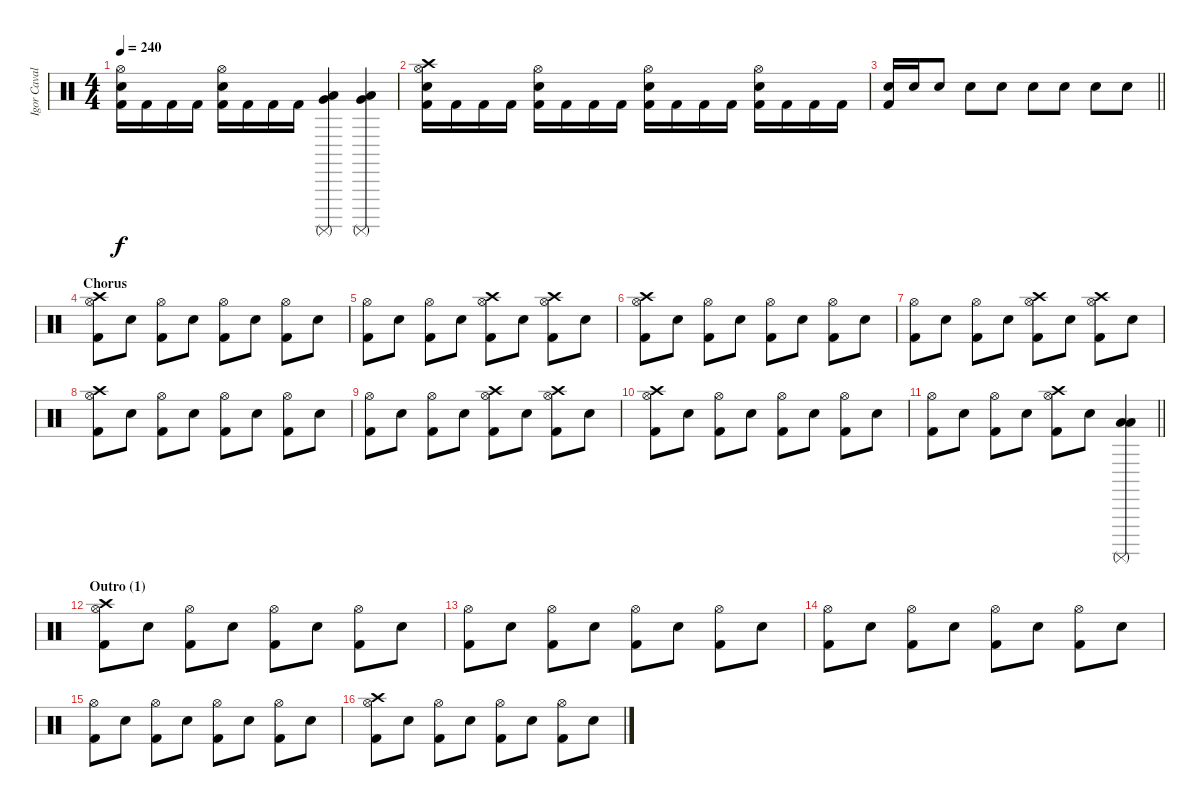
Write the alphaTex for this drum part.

\track ("Igor Cavalera" "Igor Caval") {instrument percussion}
\staff {score}
\articulation defaults
\ts (4 4)
\tempo 240
\clef neutral
\ks c
("Hi-Hat (open)" "Electric Snare (hit)" "Kick (hit) 2").16{dy f} "Kick (hit) 2".16 "Kick (hit) 2".16 "Kick (hit) 2".16 ("Hi-Hat (open)" "Electric Snare (hit)" "Kick (hit) 2").16 "Kick (hit) 2".16 "Kick (hit) 2".16 "Kick (hit) 2".16 ("Surdo (mute)" "Low Floor Tom (hit)" "Very Low Tom (hit)").4 ("Surdo (mute)" "Low Floor Tom (hit)" "Very Low Tom (hit)").4 |
("Crash high (hit)" "Hi-Hat (open)" "Electric Snare (hit)" "Kick (hit) 2").16 "Kick (hit) 2".16 "Kick (hit) 2".16 "Kick (hit) 2".16 ("Hi-Hat (open)" "Electric Snare (hit)" "Kick (hit) 2").16 "Kick (hit) 2".16 "Kick (hit) 2".16 "Kick (hit) 2".16 ("Hi-Hat (open)" "Electric Snare (hit)" "Kick (hit) 2").16 "Kick (hit) 2".16 "Kick (hit) 2".16 "Kick (hit) 2".16 ("Hi-Hat (open)" "Electric Snare (hit)" "Kick (hit) 2").16 "Kick (hit) 2".16 "Kick (hit) 2".16 "Kick (hit) 2".16 |
\barLineRight lightlight
("Snare (hit) 2" "Kick (hit) 2").16 "Snare (hit) 2".16 "Snare (hit) 2".8 "Snare (hit) 2".8 "Snare (hit) 2".8 "Snare (hit) 2".8 "Snare (hit) 2".8 "Snare (hit) 2".8 "Snare (hit) 2".8 |
\section ("" "Chorus")
("Crash high (hit)" "Hi-Hat (open)" "Kick (hit) 2").8 "Electric Snare (hit)".8 ("Hi-Hat (open)" "Kick (hit) 2").8 "Electric Snare (hit)".8 ("Hi-Hat (open)" "Kick (hit) 2").8 "Electric Snare (hit)".8 ("Hi-Hat (open)" "Kick (hit) 2").8 "Electric Snare (hit)".8 |
("Hi-Hat (open)" "Kick (hit) 2").8 "Electric Snare (hit)".8 ("Hi-Hat (open)" "Kick (hit) 2").8 "Electric Snare (hit)".8 ("Crash high (hit)" "Hi-Hat (open)" "Kick (hit) 2").8 "Electric Snare (hit)".8 ("Crash high (hit)" "Hi-Hat (open)" "Kick (hit) 2").8 "Electric Snare (hit)".8 |
("Crash high (hit)" "Hi-Hat (open)" "Kick (hit) 2").8 "Electric Snare (hit)".8 ("Hi-Hat (open)" "Kick (hit) 2").8 "Electric Snare (hit)".8 ("Hi-Hat (open)" "Kick (hit) 2").8 "Electric Snare (hit)".8 ("Hi-Hat (open)" "Kick (hit) 2").8 "Electric Snare (hit)".8 |
("Hi-Hat (open)" "Kick (hit) 2").8 "Electric Snare (hit)".8 ("Hi-Hat (open)" "Kick (hit) 2").8 "Electric Snare (hit)".8 ("Crash high (hit)" "Hi-Hat (open)" "Kick (hit) 2").8 "Electric Snare (hit)".8 ("Crash high (hit)" "Hi-Hat (open)" "Kick (hit) 2").8 "Electric Snare (hit)".8 |
("Crash high (hit)" "Hi-Hat (open)" "Kick (hit) 2").8 "Electric Snare (hit)".8 ("Hi-Hat (open)" "Kick (hit) 2").8 "Electric Snare (hit)".8 ("Hi-Hat (open)" "Kick (hit) 2").8 "Electric Snare (hit)".8 ("Hi-Hat (open)" "Kick (hit) 2").8 "Electric Snare (hit)".8 |
("Hi-Hat (open)" "Kick (hit) 2").8 "Electric Snare (hit)".8 ("Hi-Hat (open)" "Kick (hit) 2").8 "Electric Snare (hit)".8 ("Crash high (hit)" "Hi-Hat (open)" "Kick (hit) 2").8 "Electric Snare (hit)".8 ("Crash high (hit)" "Hi-Hat (open)" "Kick (hit) 2").8 "Electric Snare (hit)".8 |
("Crash high (hit)" "Hi-Hat (open)" "Kick (hit) 2").8 "Electric Snare (hit)".8 ("Hi-Hat (open)" "Kick (hit) 2").8 "Electric Snare (hit)".8 ("Hi-Hat (open)" "Kick (hit) 2").8 "Electric Snare (hit)".8 ("Hi-Hat (open)" "Kick (hit) 2").8 "Electric Snare (hit)".8 |
\barLineRight lightlight
("Hi-Hat (open)" "Kick (hit) 2").8 "Electric Snare (hit)".8 ("Hi-Hat (open)" "Kick (hit) 2").8 "Electric Snare (hit)".8 ("Crash high (hit)" "Hi-Hat (open)" "Kick (hit) 2").8 "Electric Snare (hit)".8 ("Low Tom (hit)" "Surdo (mute)" "Low Floor Tom (hit)").4 |
\section ("" "Outro (1)")
("Crash high (hit)" "Hi-Hat (open)" "Kick (hit) 2").8 "Electric Snare (hit)".8 ("Hi-Hat (open)" "Kick (hit) 2").8 "Electric Snare (hit)".8 ("Hi-Hat (open)" "Kick (hit) 2").8 "Electric Snare (hit)".8 ("Hi-Hat (open)" "Kick (hit) 2").8 "Electric Snare (hit)".8 |
("Hi-Hat (open)" "Kick (hit) 2").8 "Electric Snare (hit)".8 ("Hi-Hat (open)" "Kick (hit) 2").8 "Electric Snare (hit)".8 ("Hi-Hat (open)" "Kick (hit) 2").8 "Electric Snare (hit)".8 ("Hi-Hat (open)" "Kick (hit) 2").8 "Electric Snare (hit)".8 |
("Hi-Hat (open)" "Kick (hit) 2").8 "Electric Snare (hit)".8 ("Hi-Hat (open)" "Kick (hit) 2").8 "Electric Snare (hit)".8 ("Hi-Hat (open)" "Kick (hit) 2").8 "Electric Snare (hit)".8 ("Hi-Hat (open)" "Kick (hit) 2").8 "Electric Snare (hit)".8 |
("Hi-Hat (open)" "Kick (hit) 2").8 "Electric Snare (hit)".8 ("Hi-Hat (open)" "Kick (hit) 2").8 "Electric Snare (hit)".8 ("Hi-Hat (open)" "Kick (hit) 2").8 "Electric Snare (hit)".8 ("Hi-Hat (open)" "Kick (hit) 2").8 "Electric Snare (hit)".8 |
("Crash high (hit)" "Hi-Hat (open)" "Kick (hit) 2").8 "Electric Snare (hit)".8 ("Hi-Hat (open)" "Kick (hit) 2").8 "Electric Snare (hit)".8 ("Hi-Hat (open)" "Kick (hit) 2").8 "Electric Snare (hit)".8 ("Hi-Hat (open)" "Kick (hit) 2").8 "Electric Snare (hit)".8
